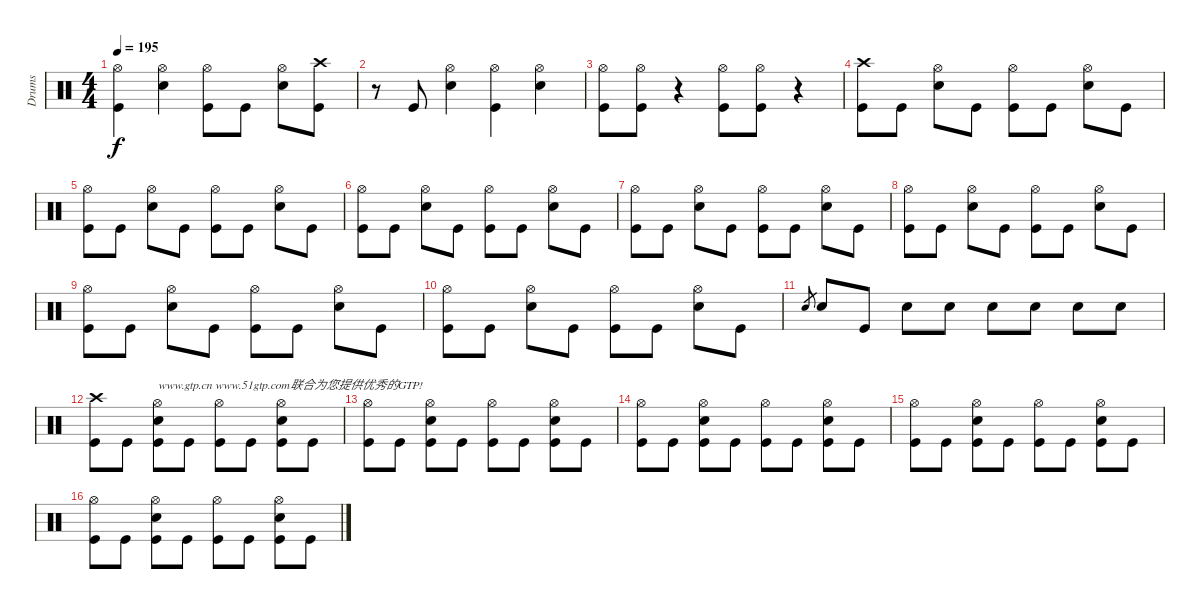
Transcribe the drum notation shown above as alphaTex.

\track ("Drums" "Drums") {instrument percussion}
\staff {score}
\articulation defaults
\ts (4 4)
\tempo 195
\clef neutral
\ks c
("Hi-Hat (open)" "Kick (hit)").4{dy f} ("Hi-Hat (open)" "Electric Snare (hit)").4 ("Hi-Hat (open)" "Kick (hit)").8 "Kick (hit)".8 ("Hi-Hat (open)" "Electric Snare (hit)").8 ("Crash high (hit)" "Kick (hit)").8 |
r.8 "Kick (hit)".8 ("Hi-Hat (open)" "Electric Snare (hit)").4 ("Hi-Hat (open)" "Kick (hit)").4 ("Hi-Hat (open)" "Electric Snare (hit)").4 |
("Hi-Hat (open)" "Kick (hit)").8 ("Hi-Hat (open)" "Kick (hit)").8 r.4 ("Hi-Hat (open)" "Kick (hit)").8 ("Hi-Hat (open)" "Kick (hit)").8 r.4 |
("Crash high (hit)" "Kick (hit)").8 "Kick (hit)".8 ("Hi-Hat (open)" "Electric Snare (hit)").8 "Kick (hit)".8 ("Hi-Hat (open)" "Kick (hit)").8 "Kick (hit)".8 ("Hi-Hat (open)" "Electric Snare (hit)").8 "Kick (hit)".8 |
("Hi-Hat (open)" "Kick (hit)").8 "Kick (hit)".8 ("Hi-Hat (open)" "Electric Snare (hit)").8 "Kick (hit)".8 ("Hi-Hat (open)" "Kick (hit)").8 "Kick (hit)".8 ("Hi-Hat (open)" "Electric Snare (hit)").8 "Kick (hit)".8 |
("Hi-Hat (open)" "Kick (hit)").8 "Kick (hit)".8 ("Hi-Hat (open)" "Electric Snare (hit)").8 "Kick (hit)".8 ("Hi-Hat (open)" "Kick (hit)").8 "Kick (hit)".8 ("Hi-Hat (open)" "Electric Snare (hit)").8 "Kick (hit)".8 |
("Hi-Hat (open)" "Kick (hit)").8 "Kick (hit)".8 ("Hi-Hat (open)" "Electric Snare (hit)").8 "Kick (hit)".8 ("Hi-Hat (open)" "Kick (hit)").8 "Kick (hit)".8 ("Hi-Hat (open)" "Electric Snare (hit)").8 "Kick (hit)".8 |
("Hi-Hat (open)" "Kick (hit)").8 "Kick (hit)".8 ("Hi-Hat (open)" "Electric Snare (hit)").8 "Kick (hit)".8 ("Hi-Hat (open)" "Kick (hit)").8 "Kick (hit)".8 ("Hi-Hat (open)" "Electric Snare (hit)").8 "Kick (hit)".8 |
("Hi-Hat (open)" "Kick (hit)").8 "Kick (hit)".8 ("Hi-Hat (open)" "Electric Snare (hit)").8 "Kick (hit)".8 ("Hi-Hat (open)" "Kick (hit)").8 "Kick (hit)".8 ("Hi-Hat (open)" "Electric Snare (hit)").8 "Kick (hit)".8 |
("Hi-Hat (open)" "Kick (hit)").8 "Kick (hit)".8 ("Hi-Hat (open)" "Electric Snare (hit)").8 "Kick (hit)".8 ("Hi-Hat (open)" "Kick (hit)").8 "Kick (hit)".8 ("Hi-Hat (open)" "Electric Snare (hit)").8 "Kick (hit)".8 |
"Electric Snare (hit)".8{gr} "Electric Snare (hit)".8 "Kick (hit)".8 "Electric Snare (hit)".8 "Electric Snare (hit)".8 "Electric Snare (hit)".8 "Electric Snare (hit)".8 "Electric Snare (hit)".8 "Electric Snare (hit)".8 |
("Crash high (hit)" "Kick (hit)").8 "Kick (hit)".8 ("Hi-Hat (open)" "Electric Snare (hit)" "Kick (hit)").8{txt "www.gtp.cn www.51gtp.com联合为您提供优秀的GTP!"} "Kick (hit)".8 ("Hi-Hat (open)" "Kick (hit)").8 "Kick (hit)".8 ("Hi-Hat (open)" "Electric Snare (hit)" "Kick (hit)").8 "Kick (hit)".8 |
("Hi-Hat (open)" "Kick (hit)").8 "Kick (hit)".8 ("Hi-Hat (open)" "Electric Snare (hit)" "Kick (hit)").8 "Kick (hit)".8 ("Hi-Hat (open)" "Kick (hit)").8 "Kick (hit)".8 ("Hi-Hat (open)" "Electric Snare (hit)" "Kick (hit)").8 "Kick (hit)".8 |
("Hi-Hat (open)" "Kick (hit)").8 "Kick (hit)".8 ("Hi-Hat (open)" "Electric Snare (hit)" "Kick (hit)").8 "Kick (hit)".8 ("Hi-Hat (open)" "Kick (hit)").8 "Kick (hit)".8 ("Hi-Hat (open)" "Electric Snare (hit)" "Kick (hit)").8 "Kick (hit)".8 |
("Hi-Hat (open)" "Kick (hit)").8 "Kick (hit)".8 ("Hi-Hat (open)" "Electric Snare (hit)" "Kick (hit)").8 "Kick (hit)".8 ("Hi-Hat (open)" "Kick (hit)").8 "Kick (hit)".8 ("Hi-Hat (open)" "Electric Snare (hit)" "Kick (hit)").8 "Kick (hit)".8 |
("Hi-Hat (open)" "Kick (hit)").8 "Kick (hit)".8 ("Hi-Hat (open)" "Electric Snare (hit)" "Kick (hit)").8 "Kick (hit)".8 ("Hi-Hat (open)" "Kick (hit)").8 "Kick (hit)".8 ("Hi-Hat (open)" "Electric Snare (hit)" "Kick (hit)").8 "Kick (hit)".8
